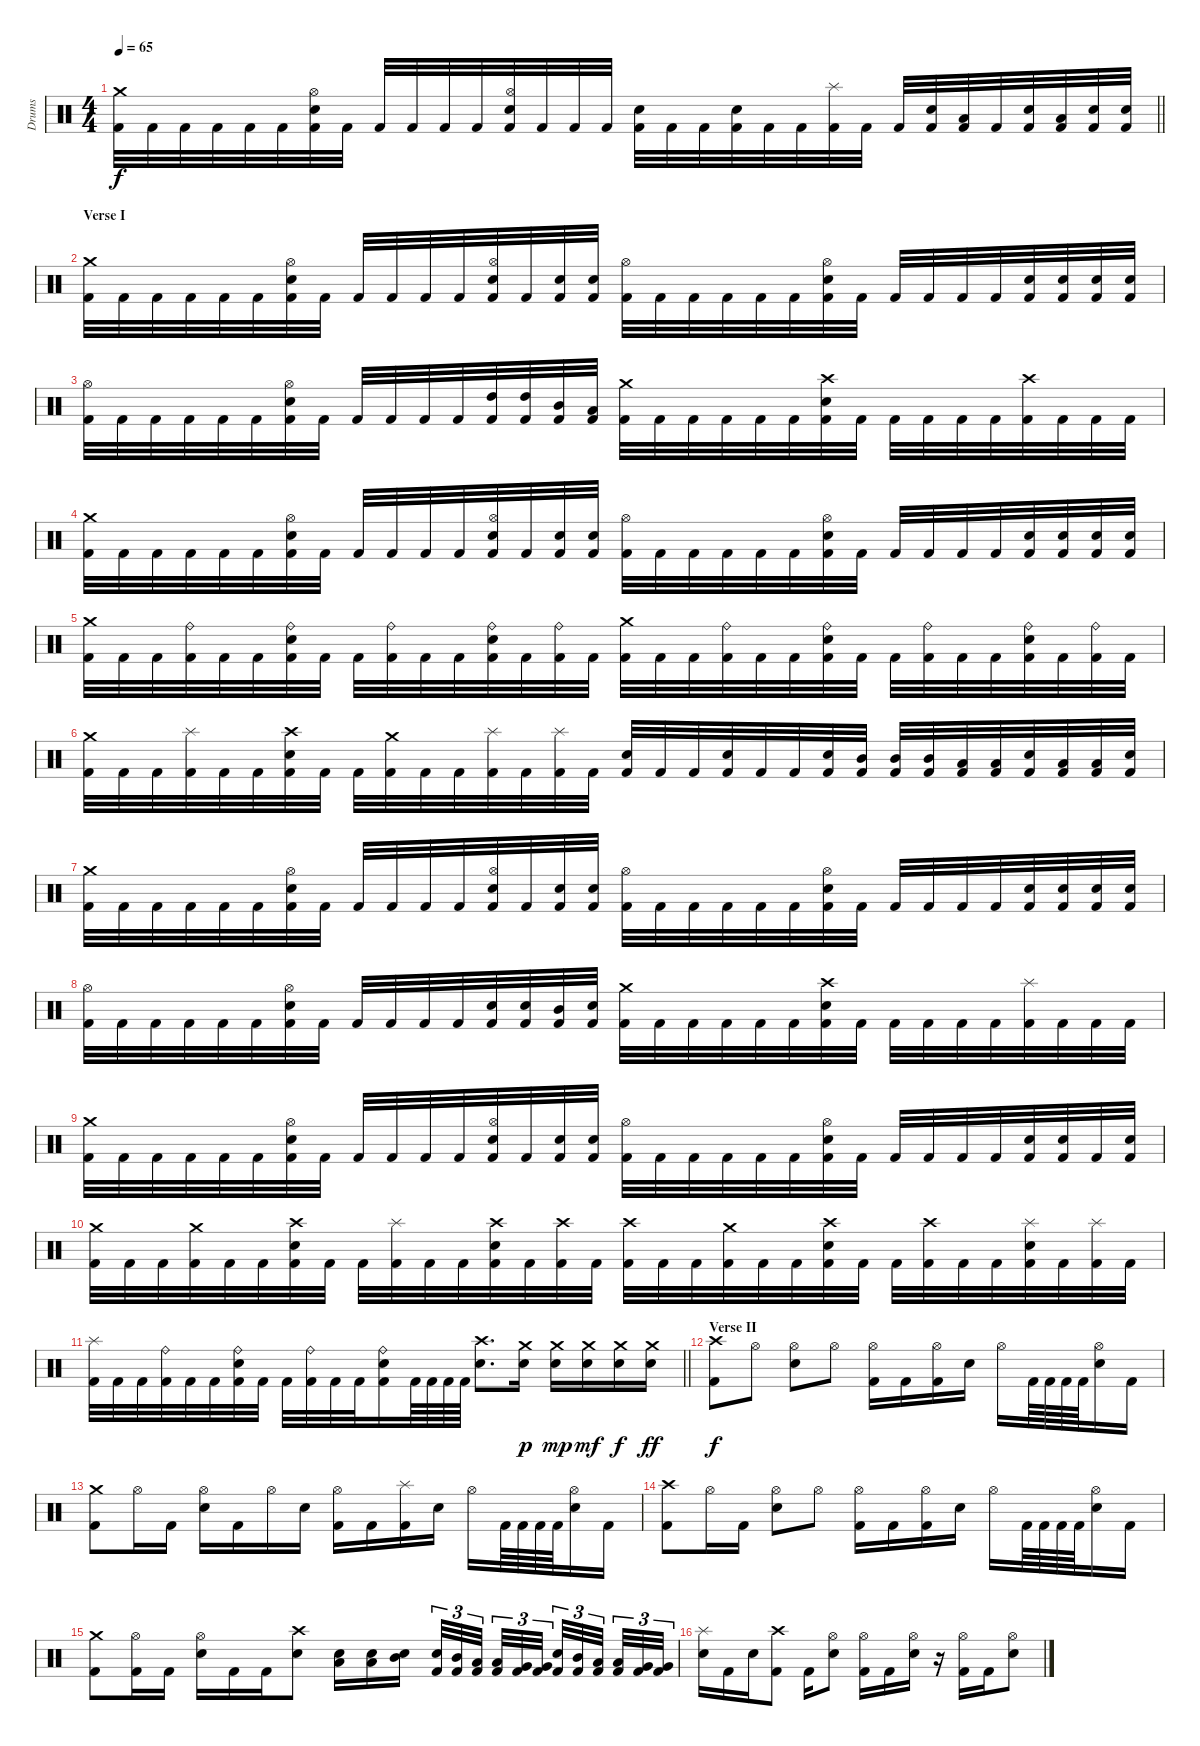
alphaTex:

\track ("Drums" "Drums") {instrument percussion}
\staff {score}
\articulation defaults
\ts (4 4)
\tempo 65
\clef neutral
\barLineRight lightlight
\ks c
("Crash medium (hit)" "Kick (hit) 2").32{dy f} "Kick (hit) 2".32 "Kick (hit) 2".32 "Kick (hit) 2".32 "Kick (hit) 2".32 "Kick (hit) 2".32 ("Hi-Hat (open)" "Electric Snare (hit)" "Kick (hit) 2").32 "Kick (hit) 2".32 "Kick (hit) 2".32 "Kick (hit) 2".32 "Kick (hit) 2".32 "Kick (hit) 2".32 ("Hi-Hat (open)" "Electric Snare (hit)" "Kick (hit) 2").32 "Kick (hit) 2".32 "Kick (hit) 2".32 "Kick (hit) 2".32 ("Electric Snare (hit)" "Kick (hit) 2").32 "Kick (hit) 2".32 "Kick (hit) 2".32 ("Electric Snare (hit)" "Kick (hit) 2").32 "Kick (hit) 2".32 "Kick (hit) 2".32 ("Splash (hit)" "Kick (hit) 2").32 "Kick (hit) 2".32 "Kick (hit) 2".32 ("Electric Snare (hit)" "Kick (hit) 2").32 ("Low Tom (hit)" "Kick (hit) 2").32 "Kick (hit) 2".32 ("Electric Snare (hit)" "Kick (hit) 2").32 ("Low Tom (hit)" "Kick (hit) 2").32 ("Electric Snare (hit)" "Kick (hit) 2").32 ("Electric Snare (hit)" "Kick (hit) 2").32 |
\section ("" "Verse I")
("Crash medium (hit)" "Kick (hit) 2").32 "Kick (hit) 2".32 "Kick (hit) 2".32 "Kick (hit) 2".32 "Kick (hit) 2".32 "Kick (hit) 2".32 ("Hi-Hat (open)" "Electric Snare (hit)" "Kick (hit) 2").32 "Kick (hit) 2".32 "Kick (hit) 2".32 "Kick (hit) 2".32 "Kick (hit) 2".32 "Kick (hit) 2".32 ("Hi-Hat (open)" "Electric Snare (hit)" "Kick (hit) 2").32 "Kick (hit) 2".32 ("Electric Snare (hit)" "Kick (hit) 2").32 ("Electric Snare (hit)" "Kick (hit) 2").32 ("Hi-Hat (open)" "Kick (hit) 2").32 "Kick (hit) 2".32 "Kick (hit) 2".32 "Kick (hit) 2".32 "Kick (hit) 2".32 "Kick (hit) 2".32 ("Hi-Hat (open)" "Electric Snare (hit)" "Kick (hit) 2").32 "Kick (hit) 2".32 "Kick (hit) 2".32 "Kick (hit) 2".32 "Kick (hit) 2".32 "Kick (hit) 2".32 ("Electric Snare (hit)" "Kick (hit) 2").32 ("Electric Snare (hit)" "Kick (hit) 2").32 ("Electric Snare (hit)" "Kick (hit) 2").32 ("Electric Snare (hit)" "Kick (hit) 2").32 |
("Hi-Hat (open)" "Kick (hit) 2").32 "Kick (hit) 2".32 "Kick (hit) 2".32 "Kick (hit) 2".32 "Kick (hit) 2".32 "Kick (hit) 2".32 ("Hi-Hat (open)" "Electric Snare (hit)" "Kick (hit) 2").32 "Kick (hit) 2".32 "Kick (hit) 2".32 "Kick (hit) 2".32 "Kick (hit) 2".32 "Kick (hit) 2".32 ("High Tom (hit)" "Kick (hit) 2").32 ("High Tom (hit)" "Kick (hit) 2").32 ("Mid Tom (hit)" "Kick (hit) 2").32 ("Low Tom (hit)" "Kick (hit) 2").32 ("Crash medium (hit)" "Kick (hit) 2").32 "Kick (hit) 2".32 "Kick (hit) 2".32 "Kick (hit) 2".32 "Kick (hit) 2".32 "Kick (hit) 2".32 ("Crash high (hit)" "Electric Snare (hit)" "Kick (hit) 2").32 "Kick (hit) 2".32 "Kick (hit) 2".32 "Kick (hit) 2".32 "Kick (hit) 2".32 "Kick (hit) 2".32 ("Crash high (hit)" "Kick (hit) 2").32 "Kick (hit) 2".32 "Kick (hit) 2".32 "Kick (hit) 2".32 |
("Crash medium (hit)" "Kick (hit) 2").32 "Kick (hit) 2".32 "Kick (hit) 2".32 "Kick (hit) 2".32 "Kick (hit) 2".32 "Kick (hit) 2".32 ("Hi-Hat (open)" "Electric Snare (hit)" "Kick (hit) 2").32 "Kick (hit) 2".32 "Kick (hit) 2".32 "Kick (hit) 2".32 "Kick (hit) 2".32 "Kick (hit) 2".32 ("Hi-Hat (open)" "Electric Snare (hit)" "Kick (hit) 2").32 "Kick (hit) 2".32 ("Electric Snare (hit)" "Kick (hit) 2").32 ("Electric Snare (hit)" "Kick (hit) 2").32 ("Hi-Hat (open)" "Kick (hit) 2").32 "Kick (hit) 2".32 "Kick (hit) 2".32 "Kick (hit) 2".32 "Kick (hit) 2".32 "Kick (hit) 2".32 ("Hi-Hat (open)" "Electric Snare (hit)" "Kick (hit) 2").32 "Kick (hit) 2".32 "Kick (hit) 2".32 "Kick (hit) 2".32 "Kick (hit) 2".32 "Kick (hit) 2".32 ("Electric Snare (hit)" "Kick (hit) 2").32 ("Electric Snare (hit)" "Kick (hit) 2").32 ("Electric Snare (hit)" "Kick (hit) 2").32 ("Electric Snare (hit)" "Kick (hit) 2").32 |
("Crash medium (hit)" "Kick (hit) 2").32 "Kick (hit) 2".32 "Kick (hit) 2".32 ("Ride (bell)" "Kick (hit) 2").32 "Kick (hit) 2".32 "Kick (hit) 2".32 ("Ride (bell)" "Electric Snare (hit)" "Kick (hit) 2").32 "Kick (hit) 2".32 "Kick (hit) 2".32 ("Ride (bell)" "Kick (hit) 2").32 "Kick (hit) 2".32 "Kick (hit) 2".32 ("Ride (bell)" "Electric Snare (hit)" "Kick (hit) 2").32 "Kick (hit) 2".32 ("Ride (bell)" "Kick (hit) 2").32 "Kick (hit) 2".32 ("Crash medium (hit)" "Kick (hit) 2").32 "Kick (hit) 2".32 "Kick (hit) 2".32 ("Ride (bell)" "Kick (hit) 2").32 "Kick (hit) 2".32 "Kick (hit) 2".32 ("Ride (bell)" "Electric Snare (hit)" "Kick (hit) 2").32 "Kick (hit) 2".32 "Kick (hit) 2".32 ("Ride (bell)" "Kick (hit) 2").32 "Kick (hit) 2".32 "Kick (hit) 2".32 ("Ride (bell)" "Electric Snare (hit)" "Kick (hit) 2").32 "Kick (hit) 2".32 ("Ride (bell)" "Kick (hit) 2").32 "Kick (hit) 2".32 |
("Crash medium (hit)" "Kick (hit) 2").32 "Kick (hit) 2".32 "Kick (hit) 2".32 ("Splash (hit)" "Kick (hit) 2").32 "Kick (hit) 2".32 "Kick (hit) 2".32 ("Crash high (hit)" "Electric Snare (hit)" "Kick (hit) 2").32 "Kick (hit) 2".32 "Kick (hit) 2".32 ("Crash medium (hit)" "Kick (hit) 2").32 "Kick (hit) 2".32 "Kick (hit) 2".32 ("Splash (hit)" "Kick (hit) 2").32 "Kick (hit) 2".32 ("Splash (hit)" "Kick (hit) 2").32 "Kick (hit) 2".32 ("Electric Snare (hit)" "Kick (hit) 2").32 "Kick (hit) 2".32 "Kick (hit) 2".32 ("Electric Snare (hit)" "Kick (hit) 2").32 "Kick (hit) 2".32 "Kick (hit) 2".32 ("Electric Snare (hit)" "Kick (hit) 2").32 ("Mid Tom (hit)" "Kick (hit) 2").32 ("Mid Tom (hit)" "Kick (hit) 2").32 ("Mid Tom (hit)" "Kick (hit) 2").32 ("Low Tom (hit)" "Kick (hit) 2").32 ("Low Tom (hit)" "Kick (hit) 2").32 ("Electric Snare (hit)" "Kick (hit) 2").32 ("Low Tom (hit)" "Kick (hit) 2").32 ("Low Tom (hit)" "Kick (hit) 2").32 ("Electric Snare (hit)" "Kick (hit) 2").32 |
("Crash medium (hit)" "Kick (hit) 2").32 "Kick (hit) 2".32 "Kick (hit) 2".32 "Kick (hit) 2".32 "Kick (hit) 2".32 "Kick (hit) 2".32 ("Hi-Hat (open)" "Electric Snare (hit)" "Kick (hit) 2").32 "Kick (hit) 2".32 "Kick (hit) 2".32 "Kick (hit) 2".32 "Kick (hit) 2".32 "Kick (hit) 2".32 ("Hi-Hat (open)" "Electric Snare (hit)" "Kick (hit) 2").32 "Kick (hit) 2".32 ("Electric Snare (hit)" "Kick (hit) 2").32 ("Electric Snare (hit)" "Kick (hit) 2").32 ("Hi-Hat (open)" "Kick (hit) 2").32 "Kick (hit) 2".32 "Kick (hit) 2".32 "Kick (hit) 2".32 "Kick (hit) 2".32 "Kick (hit) 2".32 ("Hi-Hat (open)" "Electric Snare (hit)" "Kick (hit) 2").32 "Kick (hit) 2".32 "Kick (hit) 2".32 "Kick (hit) 2".32 "Kick (hit) 2".32 "Kick (hit) 2".32 ("Electric Snare (hit)" "Kick (hit) 2").32 ("Electric Snare (hit)" "Kick (hit) 2").32 ("Electric Snare (hit)" "Kick (hit) 2").32 ("Electric Snare (hit)" "Kick (hit) 2").32 |
("Hi-Hat (open)" "Kick (hit) 2").32 "Kick (hit) 2".32 "Kick (hit) 2".32 "Kick (hit) 2".32 "Kick (hit) 2".32 "Kick (hit) 2".32 ("Hi-Hat (open)" "Electric Snare (hit)" "Kick (hit) 2").32 "Kick (hit) 2".32 "Kick (hit) 2".32 "Kick (hit) 2".32 "Kick (hit) 2".32 "Kick (hit) 2".32 ("Electric Snare (hit)" "Kick (hit) 2").32 ("Electric Snare (hit)" "Kick (hit) 2").32 ("Mid Tom (hit)" "Kick (hit) 2").32 ("Electric Snare (hit)" "Kick (hit) 2").32 ("Crash medium (hit)" "Kick (hit) 2").32 "Kick (hit) 2".32 "Kick (hit) 2".32 "Kick (hit) 2".32 "Kick (hit) 2".32 "Kick (hit) 2".32 ("Crash high (hit)" "Electric Snare (hit)" "Kick (hit) 2").32 "Kick (hit) 2".32 "Kick (hit) 2".32 "Kick (hit) 2".32 "Kick (hit) 2".32 "Kick (hit) 2".32 ("Splash (hit)" "Kick (hit) 2").32 "Kick (hit) 2".32 "Kick (hit) 2".32 "Kick (hit) 2".32 |
("Crash medium (hit)" "Kick (hit) 2").32 "Kick (hit) 2".32 "Kick (hit) 2".32 "Kick (hit) 2".32 "Kick (hit) 2".32 "Kick (hit) 2".32 ("Hi-Hat (open)" "Electric Snare (hit)" "Kick (hit) 2").32 "Kick (hit) 2".32 "Kick (hit) 2".32 "Kick (hit) 2".32 "Kick (hit) 2".32 "Kick (hit) 2".32 ("Hi-Hat (open)" "Electric Snare (hit)" "Kick (hit) 2").32 "Kick (hit) 2".32 ("Electric Snare (hit)" "Kick (hit) 2").32 ("Electric Snare (hit)" "Kick (hit) 2").32 ("Hi-Hat (open)" "Kick (hit) 2").32 "Kick (hit) 2".32 "Kick (hit) 2".32 "Kick (hit) 2".32 "Kick (hit) 2".32 "Kick (hit) 2".32 ("Hi-Hat (open)" "Electric Snare (hit)" "Kick (hit) 2").32 "Kick (hit) 2".32 "Kick (hit) 2".32 "Kick (hit) 2".32 "Kick (hit) 2".32 "Kick (hit) 2".32 ("Electric Snare (hit)" "Kick (hit) 2").32 ("Electric Snare (hit)" "Kick (hit) 2").32 "Kick (hit) 2".32 ("Electric Snare (hit)" "Kick (hit) 2").32 |
("Crash medium (hit)" "Kick (hit) 2").32 "Kick (hit) 2".32 "Kick (hit) 2".32 ("Crash medium (hit)" "Kick (hit) 2").32 "Kick (hit) 2".32 "Kick (hit) 2".32 ("Crash high (hit)" "Electric Snare (hit)" "Kick (hit) 2").32 "Kick (hit) 2".32 "Kick (hit) 2".32 ("Splash (hit)" "Kick (hit) 2").32 "Kick (hit) 2".32 "Kick (hit) 2".32 ("Crash high (hit)" "Electric Snare (hit)" "Kick (hit) 2").32 "Kick (hit) 2".32 ("Crash high (hit)" "Kick (hit) 2").32 "Kick (hit) 2".32 ("Crash high (hit)" "Kick (hit) 2").32 "Kick (hit) 2".32 "Kick (hit) 2".32 ("Crash medium (hit)" "Kick (hit) 2").32 "Kick (hit) 2".32 "Kick (hit) 2".32 ("Crash high (hit)" "Electric Snare (hit)" "Kick (hit) 2").32 "Kick (hit) 2".32 "Kick (hit) 2".32 ("Crash high (hit)" "Kick (hit) 2").32 "Kick (hit) 2".32 "Kick (hit) 2".32 ("Splash (hit)" "Electric Snare (hit)" "Kick (hit) 2").32 "Kick (hit) 2".32 ("Splash (hit)" "Kick (hit) 2").32 "Kick (hit) 2".32 |
\barLineRight lightlight
("Splash (hit)" "Kick (hit) 2").32 "Kick (hit) 2".32 "Kick (hit) 2".32 ("Ride (bell)" "Kick (hit) 2").32 "Kick (hit) 2".32 "Kick (hit) 2".32 ("Ride (bell)" "Electric Snare (hit)" "Kick (hit) 2").32 "Kick (hit) 2".32 "Kick (hit) 2".32 ("Ride (bell)" "Kick (hit) 2").32 "Kick (hit) 2".32 "Kick (hit) 2".32 ("Ride (bell)" "Electric Snare (hit)" "Kick (hit) 2").16 "Kick (hit) 2".64 "Kick (hit) 2".64 "Kick (hit) 2".64 "Kick (hit) 2".64 ("Crash high (hit)" "Electric Snare (hit)").8{d} ("Crash medium (hit)" "Electric Snare (hit)").16{dy p} ("Crash medium (hit)" "Electric Snare (hit)").16{dy mp} ("Crash medium (hit)" "Electric Snare (hit)").16{dy mf} ("Crash medium (hit)" "Electric Snare (hit)").16{dy f} ("Crash medium (hit)" "Electric Snare (hit)").16{dy ff} |
\section ("" "Verse II")
("Crash high (hit)" "Kick (hit) 2").8{dy f} "Hi-Hat (open)".8 ("Hi-Hat (open)" "Electric Snare (hit)").8 "Hi-Hat (open)".8 ("Hi-Hat (open)" "Kick (hit) 2").16 "Kick (hit) 2".16 ("Hi-Hat (open)" "Kick (hit) 2").16 "Electric Snare (hit)".16 "Hi-Hat (open)".16 "Kick (hit) 2".64 "Kick (hit) 2".64 "Kick (hit) 2".64 "Kick (hit) 2".64 ("Hi-Hat (open)" "Electric Snare (hit)").16 "Kick (hit) 2".16 |
("Crash medium (hit)" "Kick (hit) 2").8 "Hi-Hat (open)".16 "Kick (hit) 2".16 ("Hi-Hat (open)" "Electric Snare (hit)").16 "Kick (hit) 2".16 "Hi-Hat (open)".16 "Electric Snare (hit)".16 ("Hi-Hat (open)" "Kick (hit) 2").16 "Kick (hit) 2".16 ("Splash (hit)" "Kick (hit) 2").16 "Electric Snare (hit)".16 "Hi-Hat (open)".16 "Kick (hit) 2".64 "Kick (hit) 2".64 "Kick (hit) 2".64 "Kick (hit) 2".64 ("Hi-Hat (open)" "Electric Snare (hit)").16 "Kick (hit) 2".16 |
("Crash high (hit)" "Kick (hit) 2").8 "Hi-Hat (open)".16 "Kick (hit) 2".16 ("Hi-Hat (open)" "Electric Snare (hit)").8 "Hi-Hat (open)".8 ("Hi-Hat (open)" "Kick (hit) 2").16 "Kick (hit) 2".16 ("Hi-Hat (open)" "Kick (hit) 2").16 "Electric Snare (hit)".16 "Hi-Hat (open)".16 "Kick (hit) 2".64 "Kick (hit) 2".64 "Kick (hit) 2".64 "Kick (hit) 2".64 ("Hi-Hat (open)" "Electric Snare (hit)").16 "Kick (hit) 2".16 |
("Crash medium (hit)" "Kick (hit) 2").8 ("Hi-Hat (open)" "Kick (hit) 2").16 "Kick (hit) 2".16 ("Hi-Hat (open)" "Electric Snare (hit)").16 "Kick (hit) 2".16 "Kick (hit) 2".16 ("Crash high (hit)" "Electric Snare (hit)").8 ("Low Tom (hit)" "Electric Snare (hit)").16 ("Low Tom (hit)" "Electric Snare (hit)").16 ("Mid Tom (hit)" "Electric Snare (hit)").16 ("Electric Snare (hit)" "Kick (hit) 2").32{tu (3 2)} ("Mid Tom (hit)" "Kick (hit) 2").32{tu (3 2)} ("Low Tom (hit)" "Kick (hit) 2").32{tu (3 2)} ("Low Tom (hit)" "Kick (hit) 2").32{tu (3 2)} ("Very Low Tom (hit)" "Kick (hit) 2").32{tu (3 2)} ("Very Low Tom (hit)" "Kick (hit) 2").32{tu (3 2)} ("Electric Snare (hit)" "Kick (hit) 2").32{tu (3 2)} ("Mid Tom (hit)" "Kick (hit) 2").32{tu (3 2)} ("Low Tom (hit)" "Kick (hit) 2").32{tu (3 2)} ("Low Tom (hit)" "Kick (hit) 2").32{tu (3 2)} ("Very Low Tom (hit)" "Kick (hit) 2").32{tu (3 2)} ("Very Low Tom (hit)" "Kick (hit) 2").32{tu (3 2)} |
("Splash (hit)" "Electric Snare (hit)").16 "Kick (hit) 2".16 "Electric Snare (hit)".16 ("Crash high (hit)" "Kick (hit) 2").8 "Kick (hit) 2".16 ("Hi-Hat (open)" "Electric Snare (hit)").8 ("Hi-Hat (open)" "Kick (hit) 2").16 "Kick (hit) 2".16 ("Hi-Hat (open)" "Electric Snare (hit)").16 r.16 ("Hi-Hat (open)" "Kick (hit) 2").16 "Kick (hit) 2".16 ("Hi-Hat (open)" "Electric Snare (hit)").8
